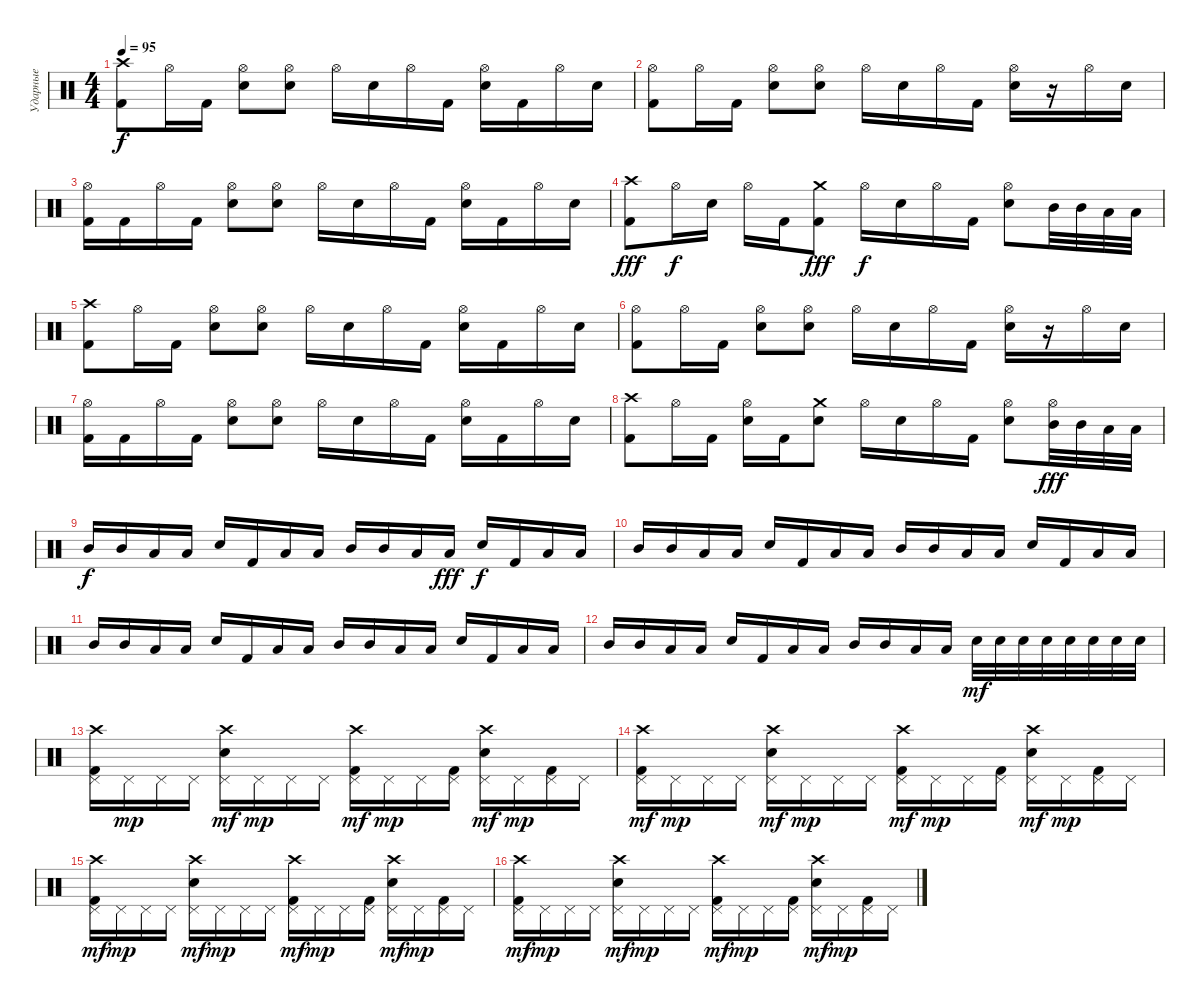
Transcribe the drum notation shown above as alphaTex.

\track ("Ударные" "Ударные") {instrument percussion}
\staff {score}
\articulation defaults
\ts (4 4)
\tempo 95
\clef neutral
\ks c
("Crash high (hit)" "Kick (hit) 2").8{dy f} "Hi-Hat (open)".16 "Kick (hit) 2".16 ("Hi-Hat (open)" "Electric Snare (hit)").8 ("Hi-Hat (open)" "Electric Snare (hit)").8 "Hi-Hat (open)".16 "Electric Snare (hit)".16 "Hi-Hat (open)".16 "Kick (hit) 2".16 ("Hi-Hat (open)" "Electric Snare (hit)").16 "Kick (hit) 2".16 "Hi-Hat (open)".16 "Electric Snare (hit)".16 |
("Hi-Hat (open)" "Kick (hit) 2").8 "Hi-Hat (open)".16 "Kick (hit) 2".16 ("Hi-Hat (open)" "Electric Snare (hit)").8 ("Hi-Hat (open)" "Electric Snare (hit)").8 "Hi-Hat (open)".16 "Electric Snare (hit)".16 "Hi-Hat (open)".16 "Kick (hit) 2".16 ("Hi-Hat (open)" "Electric Snare (hit)").16 r.16 "Hi-Hat (open)".16 "Electric Snare (hit)".16 |
("Hi-Hat (open)" "Kick (hit) 2").16 "Kick (hit) 2".16 "Hi-Hat (open)".16 "Kick (hit) 2".16 ("Hi-Hat (open)" "Electric Snare (hit)").8 ("Hi-Hat (open)" "Electric Snare (hit)").8 "Hi-Hat (open)".16 "Electric Snare (hit)".16 "Hi-Hat (open)".16 "Kick (hit) 2".16 ("Hi-Hat (open)" "Electric Snare (hit)").16 "Kick (hit) 2".16 "Hi-Hat (open)".16 "Electric Snare (hit)".16 |
("Crash high (hit)" "Kick (hit) 2").8{dy fff} "Hi-Hat (open)".16{dy f} "Electric Snare (hit)".16 "Hi-Hat (open)".16 "Kick (hit) 2".16 ("Crash medium (hit)" "Kick (hit) 2").8{dy fff} "Hi-Hat (open)".16{dy f} "Electric Snare (hit)".16 "Hi-Hat (open)".16 "Kick (hit) 2".16 ("Hi-Hat (open)" "Electric Snare (hit)").8 "Mid Tom (hit)".32 "Mid Tom (hit)".32 "Low Tom (hit)".32 "Low Tom (hit)".32 |
("Crash high (hit)" "Kick (hit) 2").8 "Hi-Hat (open)".16 "Kick (hit) 2".16 ("Hi-Hat (open)" "Electric Snare (hit)").8 ("Hi-Hat (open)" "Electric Snare (hit)").8 "Hi-Hat (open)".16 "Electric Snare (hit)".16 "Hi-Hat (open)".16 "Kick (hit) 2".16 ("Hi-Hat (open)" "Electric Snare (hit)").16 "Kick (hit) 2".16 "Hi-Hat (open)".16 "Electric Snare (hit)".16 |
("Hi-Hat (open)" "Kick (hit) 2").8 "Hi-Hat (open)".16 "Kick (hit) 2".16 ("Hi-Hat (open)" "Electric Snare (hit)").8 ("Hi-Hat (open)" "Electric Snare (hit)").8 "Hi-Hat (open)".16 "Electric Snare (hit)".16 "Hi-Hat (open)".16 "Kick (hit) 2".16 ("Hi-Hat (open)" "Electric Snare (hit)").16 r.16 "Hi-Hat (open)".16 "Electric Snare (hit)".16 |
("Hi-Hat (open)" "Kick (hit) 2").16 "Kick (hit) 2".16 "Hi-Hat (open)".16 "Kick (hit) 2".16 ("Hi-Hat (open)" "Electric Snare (hit)").8 ("Hi-Hat (open)" "Electric Snare (hit)").8 "Hi-Hat (open)".16 "Electric Snare (hit)".16 "Hi-Hat (open)".16 "Kick (hit) 2".16 ("Hi-Hat (open)" "Electric Snare (hit)").16 "Kick (hit) 2".16 "Hi-Hat (open)".16 "Electric Snare (hit)".16 |
("Crash high (hit)" "Kick (hit) 2").8 "Hi-Hat (open)".16 "Kick (hit) 2".16 ("Hi-Hat (open)" "Electric Snare (hit)").16 "Kick (hit) 2".16 ("Crash medium (hit)" "Electric Snare (hit)").8 "Hi-Hat (open)".16 "Electric Snare (hit)".16 "Hi-Hat (open)".16 "Kick (hit) 2".16 ("Hi-Hat (open)" "Electric Snare (hit)").8 ("Hi-Hat (open)" "Mid Tom (hit)").32{dy fff} "Mid Tom (hit)".32 "Low Tom (hit)".32 "Low Tom (hit)".32 |
"Mid Tom (hit)".16{dy f} "Mid Tom (hit)".16 "Low Tom (hit)".16 "Low Tom (hit)".16 "Electric Snare (hit)".16 "Kick (hit) 2".16 "Low Tom (hit)".16 "Low Tom (hit)".16 "Mid Tom (hit)".16 "Mid Tom (hit)".16 "Low Tom (hit)".16 "Low Tom (hit)".16{dy fff} "Electric Snare (hit)".16{dy f} "Kick (hit) 2".16 "Low Tom (hit)".16 "Low Tom (hit)".16 |
"Mid Tom (hit)".16 "Mid Tom (hit)".16 "Low Tom (hit)".16 "Low Tom (hit)".16 "Electric Snare (hit)".16 "Kick (hit) 2".16 "Low Tom (hit)".16 "Low Tom (hit)".16 "Mid Tom (hit)".16 "Mid Tom (hit)".16 "Low Tom (hit)".16 "Low Tom (hit)".16 "Electric Snare (hit)".16 "Kick (hit) 2".16 "Low Tom (hit)".16 "Low Tom (hit)".16 |
"Mid Tom (hit)".16 "Mid Tom (hit)".16 "Low Tom (hit)".16 "Low Tom (hit)".16 "Electric Snare (hit)".16 "Kick (hit) 2".16 "Low Tom (hit)".16 "Low Tom (hit)".16 "Mid Tom (hit)".16 "Mid Tom (hit)".16 "Low Tom (hit)".16 "Low Tom (hit)".16 "Electric Snare (hit)".16 "Kick (hit) 2".16 "Low Tom (hit)".16 "Low Tom (hit)".16 |
"Mid Tom (hit)".16 "Mid Tom (hit)".16 "Low Tom (hit)".16 "Low Tom (hit)".16 "Electric Snare (hit)".16 "Kick (hit) 2".16 "Low Tom (hit)".16 "Low Tom (hit)".16 "Mid Tom (hit)".16 "Mid Tom (hit)".16 "Low Tom (hit)".16 "Low Tom (hit)".16 "Electric Snare (hit)".32{dy mf} "Electric Snare (hit)".32 "Electric Snare (hit)".32 "Electric Snare (hit)".32 "Electric Snare (hit)".32 "Electric Snare (hit)".32 "Electric Snare (hit)".32 "Electric Snare (hit)".32 |
("Crash high (hit)" "Kick (hit) 2" "Pedal Hi-Hat (hit)").16 "Pedal Hi-Hat (hit)".16{dy mp} "Pedal Hi-Hat (hit)".16 "Pedal Hi-Hat (hit)".16 ("Crash high (hit)" "Electric Snare (hit)" "Pedal Hi-Hat (hit)").16{dy mf} "Pedal Hi-Hat (hit)".16{dy mp} "Pedal Hi-Hat (hit)".16 "Pedal Hi-Hat (hit)".16 ("Crash high (hit)" "Kick (hit) 2" "Pedal Hi-Hat (hit)").16{dy mf} "Pedal Hi-Hat (hit)".16{dy mp} "Pedal Hi-Hat (hit)".16 ("Kick (hit) 2" "Pedal Hi-Hat (hit)").16 ("Crash high (hit)" "Electric Snare (hit)" "Pedal Hi-Hat (hit)").16{dy mf} "Pedal Hi-Hat (hit)".16{dy mp} ("Kick (hit) 2" "Pedal Hi-Hat (hit)").16 "Pedal Hi-Hat (hit)".16 |
("Crash high (hit)" "Kick (hit) 2" "Pedal Hi-Hat (hit)").16{dy mf} "Pedal Hi-Hat (hit)".16{dy mp} "Pedal Hi-Hat (hit)".16 "Pedal Hi-Hat (hit)".16 ("Crash high (hit)" "Electric Snare (hit)" "Pedal Hi-Hat (hit)").16{dy mf} "Pedal Hi-Hat (hit)".16{dy mp} "Pedal Hi-Hat (hit)".16 "Pedal Hi-Hat (hit)".16 ("Crash high (hit)" "Kick (hit) 2" "Pedal Hi-Hat (hit)").16{dy mf} "Pedal Hi-Hat (hit)".16{dy mp} "Pedal Hi-Hat (hit)".16 ("Kick (hit) 2" "Pedal Hi-Hat (hit)").16 ("Crash high (hit)" "Electric Snare (hit)" "Pedal Hi-Hat (hit)").16{dy mf} "Pedal Hi-Hat (hit)".16{dy mp} ("Kick (hit) 2" "Pedal Hi-Hat (hit)").16 "Pedal Hi-Hat (hit)".16 |
("Crash high (hit)" "Kick (hit) 2" "Pedal Hi-Hat (hit)").16{dy mf} "Pedal Hi-Hat (hit)".16{dy mp} "Pedal Hi-Hat (hit)".16 "Pedal Hi-Hat (hit)".16 ("Crash high (hit)" "Electric Snare (hit)" "Pedal Hi-Hat (hit)").16{dy mf} "Pedal Hi-Hat (hit)".16{dy mp} "Pedal Hi-Hat (hit)".16 "Pedal Hi-Hat (hit)".16 ("Crash high (hit)" "Kick (hit) 2" "Pedal Hi-Hat (hit)").16{dy mf} "Pedal Hi-Hat (hit)".16{dy mp} "Pedal Hi-Hat (hit)".16 ("Kick (hit) 2" "Pedal Hi-Hat (hit)").16 ("Crash high (hit)" "Electric Snare (hit)" "Pedal Hi-Hat (hit)").16{dy mf} "Pedal Hi-Hat (hit)".16{dy mp} ("Kick (hit) 2" "Pedal Hi-Hat (hit)").16 "Pedal Hi-Hat (hit)".16 |
("Crash high (hit)" "Kick (hit) 2" "Pedal Hi-Hat (hit)").16{dy mf} "Pedal Hi-Hat (hit)".16{dy mp} "Pedal Hi-Hat (hit)".16 "Pedal Hi-Hat (hit)".16 ("Crash high (hit)" "Electric Snare (hit)" "Pedal Hi-Hat (hit)").16{dy mf} "Pedal Hi-Hat (hit)".16{dy mp} "Pedal Hi-Hat (hit)".16 "Pedal Hi-Hat (hit)".16 ("Crash high (hit)" "Kick (hit) 2" "Pedal Hi-Hat (hit)").16{dy mf} "Pedal Hi-Hat (hit)".16{dy mp} "Pedal Hi-Hat (hit)".16 ("Kick (hit) 2" "Pedal Hi-Hat (hit)").16 ("Crash high (hit)" "Electric Snare (hit)" "Pedal Hi-Hat (hit)").16{dy mf} "Pedal Hi-Hat (hit)".16{dy mp} ("Kick (hit) 2" "Pedal Hi-Hat (hit)").16 "Pedal Hi-Hat (hit)".16
